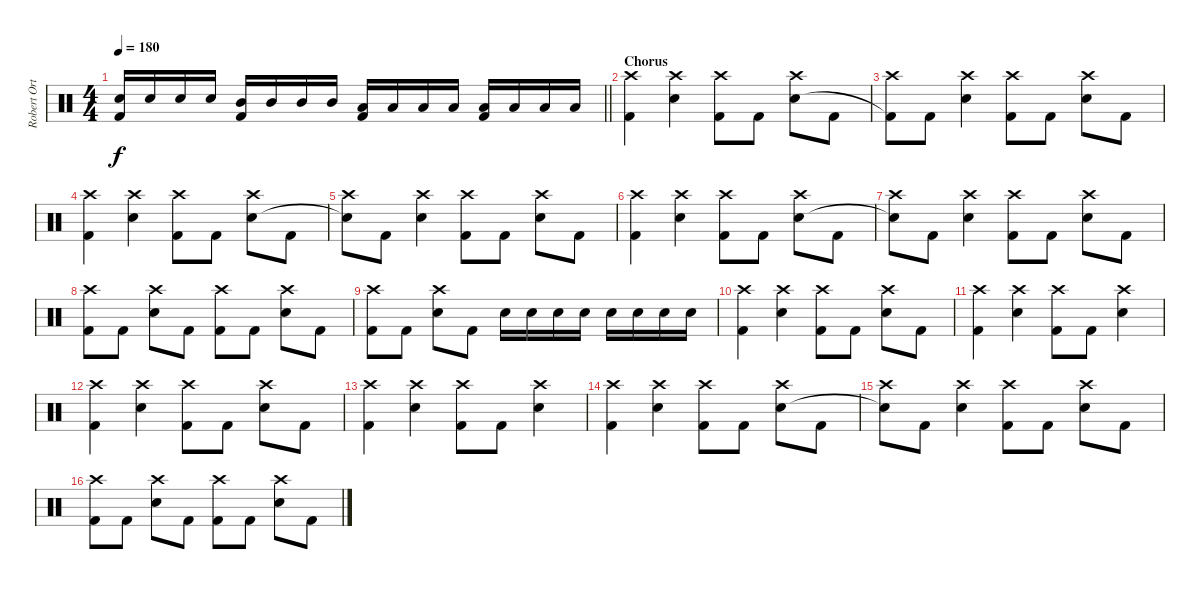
\track ("Robert Ortiz [Drums]" "Robert Ort") {instrument percussion}
\staff {score}
\articulation defaults
\ts (4 4)
\tempo 180
\clef neutral
\barLineRight lightlight
\ks c
("Electric Snare (hit)" "Kick (hit) 2").16{dy f} "Electric Snare (hit)".16 "Electric Snare (hit)".16 "Electric Snare (hit)".16 ("Mid Tom (hit)" "Kick (hit) 2").16 "Mid Tom (hit)".16 "Mid Tom (hit)".16 "Mid Tom (hit)".16 ("Low Tom (hit)" "Kick (hit) 2").16 "Low Tom (hit)".16 "Low Tom (hit)".16 "Low Tom (hit)".16 ("Low Floor Tom (hit)" "Kick (hit) 2").16 "Low Floor Tom (hit)".16 "Low Floor Tom (hit)".16 "Low Floor Tom (hit)".16 |
\section ("" "Chorus")
("Crash high (hit)" "Kick (hit) 2").4 ("Crash high (hit)" "Electric Snare (hit)").4 ("Crash high (hit)" "Kick (hit) 2").8 "Kick (hit) 2".8 ("Crash high (hit)" "Electric Snare (hit)").8 "Kick (hit) 2".8 |
("Crash high (hit)" "Kick (hit) 2"{t}).8 "Kick (hit) 2".8 ("Crash high (hit)" "Electric Snare (hit)").4 ("Crash high (hit)" "Kick (hit) 2").8 "Kick (hit) 2".8 ("Crash high (hit)" "Electric Snare (hit)").8 "Kick (hit) 2".8 |
("Crash high (hit)" "Kick (hit) 2").4 ("Crash high (hit)" "Electric Snare (hit)").4 ("Crash high (hit)" "Kick (hit) 2").8 "Kick (hit) 2".8 ("Crash high (hit)" "Electric Snare (hit)").8 "Kick (hit) 2".8 |
("Crash high (hit)" "Snare (hit)"{t}).8 "Kick (hit) 2".8 ("Crash high (hit)" "Electric Snare (hit)").4 ("Crash high (hit)" "Kick (hit) 2").8 "Kick (hit) 2".8 ("Crash high (hit)" "Electric Snare (hit)").8 "Kick (hit) 2".8 |
("Crash high (hit)" "Kick (hit) 2").4 ("Crash high (hit)" "Electric Snare (hit)").4 ("Crash high (hit)" "Kick (hit) 2").8 "Kick (hit) 2".8 ("Crash high (hit)" "Electric Snare (hit)").8 "Kick (hit) 2".8 |
("Crash high (hit)" "Snare (hit)"{t}).8 "Kick (hit) 2".8 ("Crash high (hit)" "Electric Snare (hit)").4 ("Crash high (hit)" "Kick (hit) 2").8 "Kick (hit) 2".8 ("Crash high (hit)" "Electric Snare (hit)").8 "Kick (hit) 2".8 |
("Crash high (hit)" "Kick (hit) 2").8 "Kick (hit) 2".8 ("Crash high (hit)" "Electric Snare (hit)").8 "Kick (hit) 2".8 ("Crash high (hit)" "Kick (hit) 2").8 "Kick (hit) 2".8 ("Crash high (hit)" "Electric Snare (hit)").8 "Kick (hit) 2".8 |
("Crash high (hit)" "Kick (hit) 2").8 "Kick (hit) 2".8 ("Crash high (hit)" "Electric Snare (hit)").8 "Kick (hit) 2".8 "Electric Snare (hit)".16 "Electric Snare (hit)".16 "Electric Snare (hit)".16 "Electric Snare (hit)".16 "Electric Snare (hit)".16 "Electric Snare (hit)".16 "Electric Snare (hit)".16 "Electric Snare (hit)".16 |
("Crash high (hit)" "Kick (hit) 2").4 ("Crash high (hit)" "Electric Snare (hit)").4 ("Crash high (hit)" "Kick (hit) 2").8 "Kick (hit) 2".8 ("Crash high (hit)" "Electric Snare (hit)").8 "Kick (hit) 2".8 |
("Crash high (hit)" "Kick (hit) 2").4 ("Crash high (hit)" "Electric Snare (hit)").4 ("Crash high (hit)" "Kick (hit) 2").8 "Kick (hit) 2".8 ("Crash high (hit)" "Electric Snare (hit)").4 |
("Crash high (hit)" "Kick (hit) 2").4 ("Crash high (hit)" "Electric Snare (hit)").4 ("Crash high (hit)" "Kick (hit) 2").8 "Kick (hit) 2".8 ("Crash high (hit)" "Electric Snare (hit)").8 "Kick (hit) 2".8 |
("Crash high (hit)" "Kick (hit) 2").4 ("Crash high (hit)" "Electric Snare (hit)").4 ("Crash high (hit)" "Kick (hit) 2").8 "Kick (hit) 2".8 ("Crash high (hit)" "Electric Snare (hit)").4 |
("Crash high (hit)" "Kick (hit) 2").4 ("Crash high (hit)" "Electric Snare (hit)").4 ("Crash high (hit)" "Kick (hit) 2").8 "Kick (hit) 2".8 ("Crash high (hit)" "Electric Snare (hit)").8 "Kick (hit) 2".8 |
("Crash high (hit)" "Snare (hit)"{t}).8 "Kick (hit) 2".8 ("Crash high (hit)" "Electric Snare (hit)").4 ("Crash high (hit)" "Kick (hit) 2").8 "Kick (hit) 2".8 ("Crash high (hit)" "Electric Snare (hit)").8 "Kick (hit) 2".8 |
("Crash high (hit)" "Kick (hit) 2").8 "Kick (hit) 2".8 ("Crash high (hit)" "Electric Snare (hit)").8 "Kick (hit) 2".8 ("Crash high (hit)" "Kick (hit) 2").8 "Kick (hit) 2".8 ("Crash high (hit)" "Electric Snare (hit)").8 "Kick (hit) 2".8
